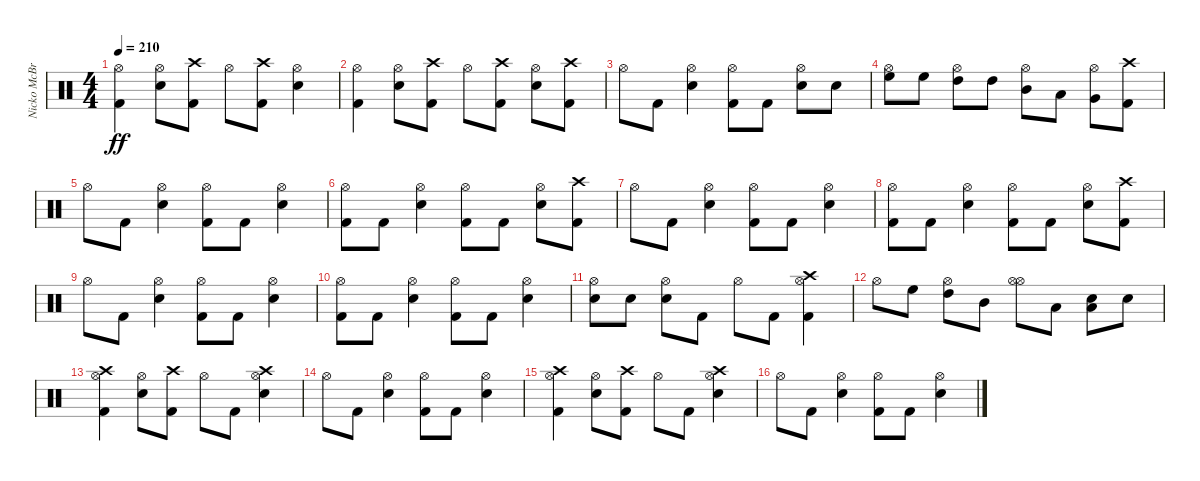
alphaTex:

\track ("Nicko McBrain" "Nicko McBr") {instrument percussion}
\staff {score}
\articulation defaults
\ts (4 4)
\tempo 210
\clef neutral
\ks c
("Kick (hit) 2" "Hi-Hat (open)").4{dy ff} ("Snare (hit) 2" "Hi-Hat (open)").8 ("Kick (hit) 2" "Crash high (hit)").8 "Hi-Hat (open)".8 ("Kick (hit) 2" "Crash high (hit)").8 ("Snare (hit) 2" "Hi-Hat (open)").4 |
("Kick (hit) 2" "Hi-Hat (open)").4 ("Snare (hit) 2" "Hi-Hat (open)").8 ("Kick (hit) 2" "Crash high (hit)").8 "Hi-Hat (open)".8 ("Kick (hit) 2" "Crash high (hit)").8 ("Snare (hit) 2" "Hi-Hat (open)").8 ("Kick (hit) 2" "Crash high (hit)").8 |
"Hi-Hat (open)".8 "Kick (hit) 2".8 ("Snare (hit) 2" "Hi-Hat (open)").4 ("Kick (hit) 2" "Hi-Hat (open)").8 "Kick (hit) 2".8 ("Snare (hit) 2" "Hi-Hat (open)").8 "Snare (hit) 2".8 |
("Hi-Hat (open)" "High Floor Tom (hit)").8 "High Floor Tom (hit)".8 ("Hi-Hat (open)" "High Tom (hit)").8 "High Tom (hit)".8 ("Hi-Hat (open)" "Mid Tom (hit)").8 "Low Tom (hit)".8 ("Very Low Tom (hit)" "Hi-Hat (open)").8 ("Kick (hit) 2" "Crash high (hit)").8 |
"Hi-Hat (open)".8 "Kick (hit) 2".8 ("Snare (hit) 2" "Hi-Hat (open)").4 ("Kick (hit) 2" "Hi-Hat (open)").8 "Kick (hit) 2".8 ("Snare (hit) 2" "Hi-Hat (open)").4 |
("Kick (hit) 2" "Hi-Hat (open)").8 "Kick (hit) 2".8 ("Snare (hit) 2" "Hi-Hat (open)").4 ("Kick (hit) 2" "Hi-Hat (open)").8 "Kick (hit) 2".8 ("Snare (hit) 2" "Hi-Hat (open)").8 ("Kick (hit) 2" "Crash high (hit)").8 |
"Hi-Hat (open)".8 "Kick (hit) 2".8 ("Snare (hit) 2" "Hi-Hat (open)").4 ("Kick (hit) 2" "Hi-Hat (open)").8 "Kick (hit) 2".8 ("Snare (hit) 2" "Hi-Hat (open)").4 |
("Kick (hit) 2" "Hi-Hat (open)").8 "Kick (hit) 2".8 ("Snare (hit) 2" "Hi-Hat (open)").4 ("Kick (hit) 2" "Hi-Hat (open)").8 "Kick (hit) 2".8 ("Snare (hit) 2" "Hi-Hat (open)").8 ("Kick (hit) 2" "Crash high (hit)").8 |
"Hi-Hat (open)".8 "Kick (hit) 2".8 ("Snare (hit) 2" "Hi-Hat (open)").4 ("Kick (hit) 2" "Hi-Hat (open)").8 "Kick (hit) 2".8 ("Snare (hit) 2" "Hi-Hat (open)").4 |
("Kick (hit) 2" "Hi-Hat (open)").8 "Kick (hit) 2".8 ("Snare (hit) 2" "Hi-Hat (open)").4 ("Kick (hit) 2" "Hi-Hat (open)").8 "Kick (hit) 2".8 ("Snare (hit) 2" "Hi-Hat (open)").4 |
("Snare (hit) 2" "Hi-Hat (open)").8 "Snare (hit) 2".8 ("Snare (hit) 2" "Hi-Hat (open)").8 "Kick (hit) 2".8 "Hi-Hat (open)".8 "Kick (hit) 2".8 ("Kick (hit) 2" "Hi-Hat (open)" "Crash high (hit)").4 |
"Hi-Hat (open)".8 "High Floor Tom (hit)".8 ("Hi-Hat (open)" "High Tom (hit)").8 "Mid Tom (hit)".8 ("Hi-Hat (open)" "Hi-Hat (open)").8 "Low Tom (hit)".8 ("Snare (hit) 2" "Low Tom (hit)").8 "Snare (hit) 2".8 |
("Kick (hit) 2" "Hi-Hat (open)" "Crash high (hit)").4 ("Snare (hit) 2" "Hi-Hat (open)").8 ("Kick (hit) 2" "Crash high (hit)").8 "Hi-Hat (open)".8 "Kick (hit) 2".8 ("Snare (hit) 2" "Hi-Hat (open)" "Crash high (hit)").4 |
"Hi-Hat (open)".8 "Kick (hit) 2".8 ("Snare (hit) 2" "Hi-Hat (open)").4 ("Kick (hit) 2" "Hi-Hat (open)").8 "Kick (hit) 2".8 ("Snare (hit) 2" "Hi-Hat (open)").4 |
("Kick (hit) 2" "Hi-Hat (open)" "Crash high (hit)").4 ("Snare (hit) 2" "Hi-Hat (open)").8 ("Kick (hit) 2" "Crash high (hit)").8 "Hi-Hat (open)".8 "Kick (hit) 2".8 ("Snare (hit) 2" "Hi-Hat (open)" "Crash high (hit)").4 |
"Hi-Hat (open)".8 "Kick (hit) 2".8 ("Snare (hit) 2" "Hi-Hat (open)").4 ("Kick (hit) 2" "Hi-Hat (open)").8 "Kick (hit) 2".8 ("Snare (hit) 2" "Hi-Hat (open)").4
